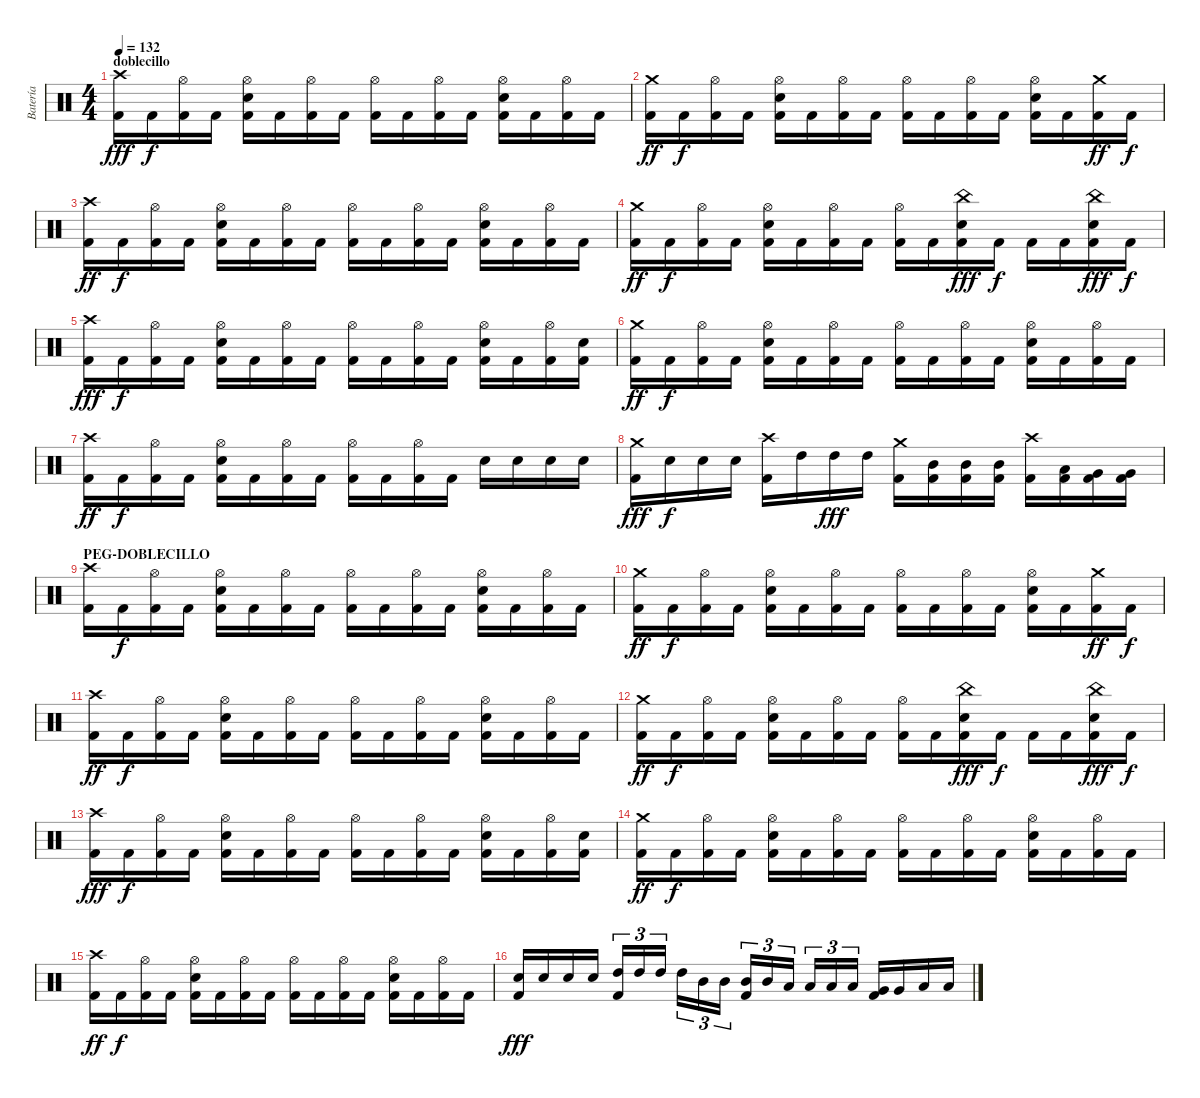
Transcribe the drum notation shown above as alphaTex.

\track ("Batería" "Batería") {instrument percussion}
\staff {score}
\articulation defaults
\ts (4 4)
\section ("" "doblecillo")
\tempo 132
\clef neutral
\ks c
("Crash high (hit)" "Kick (hit) 2").16{dy fff volume 14} "Kick (hit) 2".16{dy f} ("Hi-Hat (open)" "Kick (hit) 2").16 "Kick (hit) 2".16 ("Hi-Hat (open)" "Kick (hit) 2" "Snare (hit) 2").16 "Kick (hit) 2".16 ("Hi-Hat (open)" "Kick (hit) 2").16 "Kick (hit) 2".16 ("Hi-Hat (open)" "Kick (hit) 2").16 "Kick (hit) 2".16 ("Hi-Hat (open)" "Kick (hit) 2").16 "Kick (hit) 2".16 ("Hi-Hat (open)" "Kick (hit) 2" "Snare (hit) 2").16 "Kick (hit) 2".16 ("Hi-Hat (open)" "Kick (hit) 2").16 "Kick (hit) 2".16 |
("Crash medium (hit)" "Kick (hit) 2").16{dy ff} "Kick (hit) 2".16{dy f} ("Hi-Hat (open)" "Kick (hit) 2").16 "Kick (hit) 2".16 ("Hi-Hat (open)" "Kick (hit) 2" "Snare (hit) 2").16 "Kick (hit) 2".16 ("Hi-Hat (open)" "Kick (hit) 2").16 "Kick (hit) 2".16 ("Hi-Hat (open)" "Kick (hit) 2").16 "Kick (hit) 2".16 ("Hi-Hat (open)" "Kick (hit) 2").16 "Kick (hit) 2".16 ("Hi-Hat (open)" "Kick (hit) 2" "Snare (hit) 2").16 "Kick (hit) 2".16 ("Crash medium (hit)" "Kick (hit) 2").16{dy ff} "Kick (hit) 2".16{dy f} |
("Crash high (hit)" "Kick (hit) 2").16{dy ff} "Kick (hit) 2".16{dy f} ("Hi-Hat (open)" "Kick (hit) 2").16 "Kick (hit) 2".16 ("Hi-Hat (open)" "Kick (hit) 2" "Snare (hit) 2").16 "Kick (hit) 2".16 ("Hi-Hat (open)" "Kick (hit) 2").16 "Kick (hit) 2".16 ("Hi-Hat (open)" "Kick (hit) 2").16 "Kick (hit) 2".16 ("Hi-Hat (open)" "Kick (hit) 2").16 "Kick (hit) 2".16 ("Hi-Hat (open)" "Kick (hit) 2" "Snare (hit) 2").16 "Kick (hit) 2".16 ("Hi-Hat (open)" "Kick (hit) 2").16 "Kick (hit) 2".16 |
("Crash medium (hit)" "Kick (hit) 2").16{dy ff} "Kick (hit) 2".16{dy f} ("Hi-Hat (open)" "Kick (hit) 2").16 "Kick (hit) 2".16 ("Hi-Hat (open)" "Kick (hit) 2" "Snare (hit) 2").16 "Kick (hit) 2".16 ("Hi-Hat (open)" "Kick (hit) 2").16 "Kick (hit) 2".16 ("Hi-Hat (open)" "Kick (hit) 2").16 "Kick (hit) 2".16 ("China (hit)" "Kick (hit) 2" "Snare (hit) 2").16{dy fff} "Kick (hit) 2".16{dy f} "Kick (hit) 2".16 "Kick (hit) 2".16 ("China (hit)" "Kick (hit) 2" "Snare (hit) 2").16{dy fff} "Kick (hit) 2".16{dy f} |
("Crash high (hit)" "Kick (hit) 2").16{dy fff} "Kick (hit) 2".16{dy f} ("Hi-Hat (open)" "Kick (hit) 2").16 "Kick (hit) 2".16 ("Hi-Hat (open)" "Kick (hit) 2" "Snare (hit) 2").16 "Kick (hit) 2".16 ("Hi-Hat (open)" "Kick (hit) 2").16 "Kick (hit) 2".16 ("Hi-Hat (open)" "Kick (hit) 2").16 "Kick (hit) 2".16 ("Hi-Hat (open)" "Kick (hit) 2").16 "Kick (hit) 2".16 ("Hi-Hat (open)" "Kick (hit) 2" "Snare (hit) 2").16 "Kick (hit) 2".16 ("Hi-Hat (open)" "Kick (hit) 2").16 ("Kick (hit) 2" "Snare (hit) 2").16 |
("Crash medium (hit)" "Kick (hit) 2").16{dy ff} "Kick (hit) 2".16{dy f} ("Hi-Hat (open)" "Kick (hit) 2").16 "Kick (hit) 2".16 ("Hi-Hat (open)" "Kick (hit) 2" "Snare (hit) 2").16 "Kick (hit) 2".16 ("Hi-Hat (open)" "Kick (hit) 2").16 "Kick (hit) 2".16 ("Hi-Hat (open)" "Kick (hit) 2").16 "Kick (hit) 2".16 ("Hi-Hat (open)" "Kick (hit) 2").16 "Kick (hit) 2".16 ("Hi-Hat (open)" "Kick (hit) 2" "Snare (hit) 2").16 "Kick (hit) 2".16 ("Hi-Hat (open)" "Kick (hit) 2").16 "Kick (hit) 2".16 |
("Crash high (hit)" "Kick (hit) 2").16{dy ff} "Kick (hit) 2".16{dy f} ("Hi-Hat (open)" "Kick (hit) 2").16 "Kick (hit) 2".16 ("Hi-Hat (open)" "Kick (hit) 2" "Snare (hit) 2").16 "Kick (hit) 2".16 ("Hi-Hat (open)" "Kick (hit) 2").16 "Kick (hit) 2".16 ("Hi-Hat (open)" "Kick (hit) 2").16 "Kick (hit) 2".16 ("Hi-Hat (open)" "Kick (hit) 2").16 "Kick (hit) 2".16 "Snare (hit) 2".16 "Snare (hit) 2".16 "Snare (hit) 2".16 "Snare (hit) 2".16 |
("Crash medium (hit)" "Kick (hit) 2").16{dy fff volume 15} "Snare (hit) 2".16{dy f} "Snare (hit) 2".16 "Snare (hit) 2".16 ("Crash high (hit)" "Kick (hit) 2").16 "High Tom (hit)".16 "High Tom (hit)".16{dy fff} "High Tom (hit)".16 ("Crash medium (hit)" "Kick (hit) 2").16 ("Kick (hit) 2" "Mid Tom (hit)").16 ("Kick (hit) 2" "Mid Tom (hit)").16 ("Kick (hit) 2" "Mid Tom (hit)").16 ("Crash high (hit)" "Kick (hit) 2").16 ("Kick (hit) 2" "Low Tom (hit)").16 ("Kick (hit) 2" "Very Low Tom (hit)").16 ("Kick (hit) 2" "Very Low Tom (hit)").16 |
\section ("" "PEG-DOBLECILLO")
("Crash high (hit)" "Kick (hit) 2").16{volume 16} "Kick (hit) 2".16{dy f volume 14} ("Hi-Hat (open)" "Kick (hit) 2").16 "Kick (hit) 2".16 ("Hi-Hat (open)" "Kick (hit) 2" "Snare (hit) 2").16 "Kick (hit) 2".16 ("Hi-Hat (open)" "Kick (hit) 2").16 "Kick (hit) 2".16 ("Hi-Hat (open)" "Kick (hit) 2").16 "Kick (hit) 2".16 ("Hi-Hat (open)" "Kick (hit) 2").16 "Kick (hit) 2".16 ("Hi-Hat (open)" "Kick (hit) 2" "Snare (hit) 2").16 "Kick (hit) 2".16 ("Hi-Hat (open)" "Kick (hit) 2").16 "Kick (hit) 2".16 |
("Crash medium (hit)" "Kick (hit) 2").16{dy ff} "Kick (hit) 2".16{dy f} ("Hi-Hat (open)" "Kick (hit) 2").16 "Kick (hit) 2".16 ("Hi-Hat (open)" "Kick (hit) 2" "Snare (hit) 2").16 "Kick (hit) 2".16 ("Hi-Hat (open)" "Kick (hit) 2").16 "Kick (hit) 2".16 ("Hi-Hat (open)" "Kick (hit) 2").16 "Kick (hit) 2".16 ("Hi-Hat (open)" "Kick (hit) 2").16 "Kick (hit) 2".16 ("Hi-Hat (open)" "Kick (hit) 2" "Snare (hit) 2").16 "Kick (hit) 2".16 ("Crash medium (hit)" "Kick (hit) 2").16{dy ff} "Kick (hit) 2".16{dy f} |
("Crash high (hit)" "Kick (hit) 2").16{dy ff} "Kick (hit) 2".16{dy f} ("Hi-Hat (open)" "Kick (hit) 2").16 "Kick (hit) 2".16 ("Hi-Hat (open)" "Kick (hit) 2" "Snare (hit) 2").16 "Kick (hit) 2".16 ("Hi-Hat (open)" "Kick (hit) 2").16 "Kick (hit) 2".16 ("Hi-Hat (open)" "Kick (hit) 2").16 "Kick (hit) 2".16 ("Hi-Hat (open)" "Kick (hit) 2").16 "Kick (hit) 2".16 ("Hi-Hat (open)" "Kick (hit) 2" "Snare (hit) 2").16 "Kick (hit) 2".16 ("Hi-Hat (open)" "Kick (hit) 2").16 "Kick (hit) 2".16 |
("Crash medium (hit)" "Kick (hit) 2").16{dy ff} "Kick (hit) 2".16{dy f} ("Hi-Hat (open)" "Kick (hit) 2").16 "Kick (hit) 2".16 ("Hi-Hat (open)" "Kick (hit) 2" "Snare (hit) 2").16 "Kick (hit) 2".16 ("Hi-Hat (open)" "Kick (hit) 2").16 "Kick (hit) 2".16 ("Hi-Hat (open)" "Kick (hit) 2").16 "Kick (hit) 2".16 ("China (hit)" "Kick (hit) 2" "Snare (hit) 2").16{dy fff} "Kick (hit) 2".16{dy f} "Kick (hit) 2".16 "Kick (hit) 2".16 ("China (hit)" "Kick (hit) 2" "Snare (hit) 2").16{dy fff} "Kick (hit) 2".16{dy f} |
("Crash high (hit)" "Kick (hit) 2").16{dy fff} "Kick (hit) 2".16{dy f} ("Hi-Hat (open)" "Kick (hit) 2").16 "Kick (hit) 2".16 ("Hi-Hat (open)" "Kick (hit) 2" "Snare (hit) 2").16 "Kick (hit) 2".16 ("Hi-Hat (open)" "Kick (hit) 2").16 "Kick (hit) 2".16 ("Hi-Hat (open)" "Kick (hit) 2").16 "Kick (hit) 2".16 ("Hi-Hat (open)" "Kick (hit) 2").16 "Kick (hit) 2".16 ("Hi-Hat (open)" "Kick (hit) 2" "Snare (hit) 2").16 "Kick (hit) 2".16 ("Hi-Hat (open)" "Kick (hit) 2").16 ("Kick (hit) 2" "Snare (hit) 2").16 |
("Crash medium (hit)" "Kick (hit) 2").16{dy ff} "Kick (hit) 2".16{dy f} ("Hi-Hat (open)" "Kick (hit) 2").16 "Kick (hit) 2".16 ("Hi-Hat (open)" "Kick (hit) 2" "Snare (hit) 2").16 "Kick (hit) 2".16 ("Hi-Hat (open)" "Kick (hit) 2").16 "Kick (hit) 2".16 ("Hi-Hat (open)" "Kick (hit) 2").16 "Kick (hit) 2".16 ("Hi-Hat (open)" "Kick (hit) 2").16 "Kick (hit) 2".16 ("Hi-Hat (open)" "Kick (hit) 2" "Snare (hit) 2").16 "Kick (hit) 2".16 ("Hi-Hat (open)" "Kick (hit) 2").16 "Kick (hit) 2".16 |
("Crash high (hit)" "Kick (hit) 2").16{dy ff} "Kick (hit) 2".16{dy f} ("Hi-Hat (open)" "Kick (hit) 2").16 "Kick (hit) 2".16 ("Hi-Hat (open)" "Kick (hit) 2" "Snare (hit) 2").16 "Kick (hit) 2".16 ("Hi-Hat (open)" "Kick (hit) 2").16 "Kick (hit) 2".16 ("Hi-Hat (open)" "Kick (hit) 2").16 "Kick (hit) 2".16 ("Hi-Hat (open)" "Kick (hit) 2").16 "Kick (hit) 2".16 ("Hi-Hat (open)" "Kick (hit) 2" "Snare (hit) 2").16 "Kick (hit) 2".16 ("Hi-Hat (open)" "Kick (hit) 2").16 "Kick (hit) 2".16 |
("Kick (hit) 2" "Snare (hit) 2").16{dy fff volume 16} "Snare (hit) 2".16 "Snare (hit) 2".16 "Snare (hit) 2".16 ("Kick (hit) 2" "High Tom (hit)").16{tu (3 2)} "High Tom (hit)".16{tu (3 2)} "High Tom (hit)".16{tu (3 2)} "High Tom (hit)".16{tu (3 2)} "Mid Tom (hit)".16{tu (3 2)} "Mid Tom (hit)".16{tu (3 2)} ("Kick (hit) 2" "Mid Tom (hit)").16{tu (3 2)} "Mid Tom (hit)".16{tu (3 2)} "Low Tom (hit)".16{tu (3 2)} "Low Tom (hit)".16{tu (3 2)} "Low Tom (hit)".16{tu (3 2)} "Low Tom (hit)".16{tu (3 2)} ("Kick (hit) 2" "Very Low Tom (hit)").16 "Very Low Tom (hit)".16 "Low Floor Tom (hit)".16 "Low Floor Tom (hit)".16
